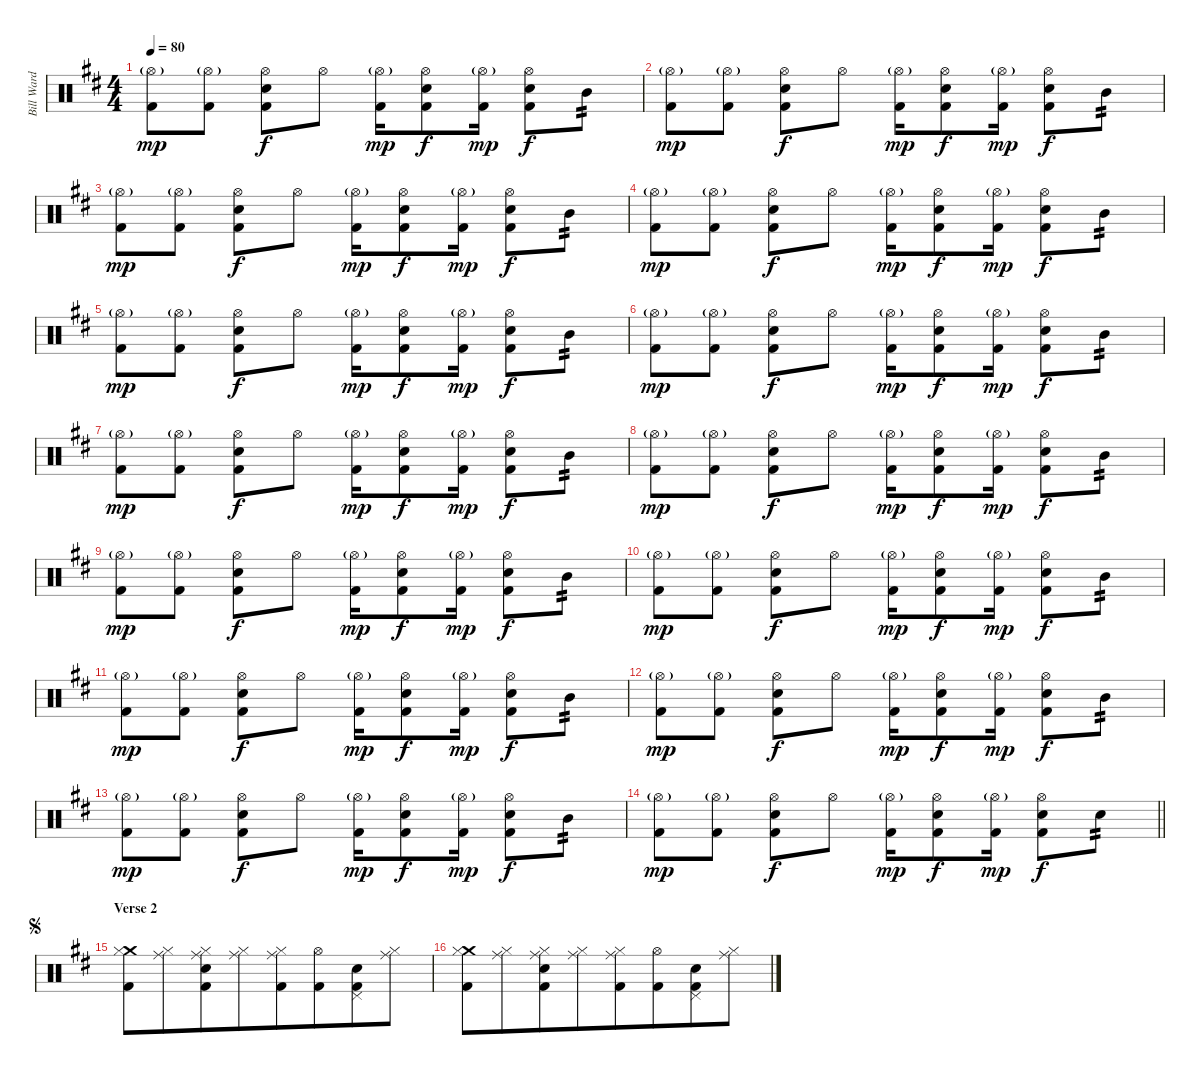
\track ("Bill Ward" "Bill Ward") {instrument percussion}
\staff {score}
\articulation defaults
\ts (4 4)
\tempo 80
\clef neutral
\ks d
("Hi-Hat (open)"{g} "Kick (hit) 2").8{dy mp} ("Hi-Hat (open)"{g} "Kick (hit) 2").8 ("Hi-Hat (open)" "Snare (hit) 2" "Kick (hit) 2").8{dy f} "Hi-Hat (open)".8 ("Hi-Hat (open)"{g} "Kick (hit) 2").16{dy mp} ("Hi-Hat (open)" "Snare (hit) 2" "Kick (hit) 2").8{dy f} ("Hi-Hat (open)"{g} "Kick (hit) 2").16{dy mp} ("Hi-Hat (open)" "Snare (hit) 2" "Kick (hit) 2").8{dy f} "Mid Tom (hit)".8{tp 2} |
("Hi-Hat (open)"{g} "Kick (hit) 2").8{dy mp} ("Hi-Hat (open)"{g} "Kick (hit) 2").8 ("Hi-Hat (open)" "Snare (hit) 2" "Kick (hit) 2").8{dy f} "Hi-Hat (open)".8 ("Hi-Hat (open)"{g} "Kick (hit) 2").16{dy mp} ("Hi-Hat (open)" "Snare (hit) 2" "Kick (hit) 2").8{dy f} ("Hi-Hat (open)"{g} "Kick (hit) 2").16{dy mp} ("Hi-Hat (open)" "Snare (hit) 2" "Kick (hit) 2").8{dy f} "Mid Tom (hit)".8{tp 2} |
("Hi-Hat (open)"{g} "Kick (hit) 2").8{dy mp} ("Hi-Hat (open)"{g} "Kick (hit) 2").8 ("Hi-Hat (open)" "Snare (hit) 2" "Kick (hit) 2").8{dy f} "Hi-Hat (open)".8 ("Hi-Hat (open)"{g} "Kick (hit) 2").16{dy mp} ("Hi-Hat (open)" "Snare (hit) 2" "Kick (hit) 2").8{dy f} ("Hi-Hat (open)"{g} "Kick (hit) 2").16{dy mp} ("Hi-Hat (open)" "Snare (hit) 2" "Kick (hit) 2").8{dy f} "Mid Tom (hit)".8{tp 2} |
("Hi-Hat (open)"{g} "Kick (hit) 2").8{dy mp} ("Hi-Hat (open)"{g} "Kick (hit) 2").8 ("Hi-Hat (open)" "Snare (hit) 2" "Kick (hit) 2").8{dy f} "Hi-Hat (open)".8 ("Hi-Hat (open)"{g} "Kick (hit) 2").16{dy mp} ("Hi-Hat (open)" "Snare (hit) 2" "Kick (hit) 2").8{dy f} ("Hi-Hat (open)"{g} "Kick (hit) 2").16{dy mp} ("Hi-Hat (open)" "Snare (hit) 2" "Kick (hit) 2").8{dy f} "Mid Tom (hit)".8{tp 2} |
("Hi-Hat (open)"{g} "Kick (hit) 2").8{dy mp} ("Hi-Hat (open)"{g} "Kick (hit) 2").8 ("Hi-Hat (open)" "Snare (hit) 2" "Kick (hit) 2").8{dy f} "Hi-Hat (open)".8 ("Hi-Hat (open)"{g} "Kick (hit) 2").16{dy mp} ("Hi-Hat (open)" "Snare (hit) 2" "Kick (hit) 2").8{dy f} ("Hi-Hat (open)"{g} "Kick (hit) 2").16{dy mp} ("Hi-Hat (open)" "Snare (hit) 2" "Kick (hit) 2").8{dy f} "Mid Tom (hit)".8{tp 2} |
("Hi-Hat (open)"{g} "Kick (hit) 2").8{dy mp} ("Hi-Hat (open)"{g} "Kick (hit) 2").8 ("Hi-Hat (open)" "Snare (hit) 2" "Kick (hit) 2").8{dy f} "Hi-Hat (open)".8 ("Hi-Hat (open)"{g} "Kick (hit) 2").16{dy mp} ("Hi-Hat (open)" "Snare (hit) 2" "Kick (hit) 2").8{dy f} ("Hi-Hat (open)"{g} "Kick (hit) 2").16{dy mp} ("Hi-Hat (open)" "Snare (hit) 2" "Kick (hit) 2").8{dy f} "Mid Tom (hit)".8{tp 2} |
("Hi-Hat (open)"{g} "Kick (hit) 2").8{dy mp} ("Hi-Hat (open)"{g} "Kick (hit) 2").8 ("Hi-Hat (open)" "Snare (hit) 2" "Kick (hit) 2").8{dy f} "Hi-Hat (open)".8 ("Hi-Hat (open)"{g} "Kick (hit) 2").16{dy mp} ("Hi-Hat (open)" "Snare (hit) 2" "Kick (hit) 2").8{dy f} ("Hi-Hat (open)"{g} "Kick (hit) 2").16{dy mp} ("Hi-Hat (open)" "Snare (hit) 2" "Kick (hit) 2").8{dy f} "Mid Tom (hit)".8{tp 2} |
("Hi-Hat (open)"{g} "Kick (hit) 2").8{dy mp} ("Hi-Hat (open)"{g} "Kick (hit) 2").8 ("Hi-Hat (open)" "Snare (hit) 2" "Kick (hit) 2").8{dy f} "Hi-Hat (open)".8 ("Hi-Hat (open)"{g} "Kick (hit) 2").16{dy mp} ("Hi-Hat (open)" "Snare (hit) 2" "Kick (hit) 2").8{dy f} ("Hi-Hat (open)"{g} "Kick (hit) 2").16{dy mp} ("Hi-Hat (open)" "Snare (hit) 2" "Kick (hit) 2").8{dy f} "Mid Tom (hit)".8{tp 2} |
("Hi-Hat (open)"{g} "Kick (hit) 2").8{dy mp} ("Hi-Hat (open)"{g} "Kick (hit) 2").8 ("Hi-Hat (open)" "Snare (hit) 2" "Kick (hit) 2").8{dy f} "Hi-Hat (open)".8 ("Hi-Hat (open)"{g} "Kick (hit) 2").16{dy mp} ("Hi-Hat (open)" "Snare (hit) 2" "Kick (hit) 2").8{dy f} ("Hi-Hat (open)"{g} "Kick (hit) 2").16{dy mp} ("Hi-Hat (open)" "Snare (hit) 2" "Kick (hit) 2").8{dy f} "Mid Tom (hit)".8{tp 2} |
("Hi-Hat (open)"{g} "Kick (hit) 2").8{dy mp} ("Hi-Hat (open)"{g} "Kick (hit) 2").8 ("Hi-Hat (open)" "Snare (hit) 2" "Kick (hit) 2").8{dy f} "Hi-Hat (open)".8 ("Hi-Hat (open)"{g} "Kick (hit) 2").16{dy mp} ("Hi-Hat (open)" "Snare (hit) 2" "Kick (hit) 2").8{dy f} ("Hi-Hat (open)"{g} "Kick (hit) 2").16{dy mp} ("Hi-Hat (open)" "Snare (hit) 2" "Kick (hit) 2").8{dy f} "Mid Tom (hit)".8{tp 2} |
("Hi-Hat (open)"{g} "Kick (hit) 2").8{dy mp} ("Hi-Hat (open)"{g} "Kick (hit) 2").8 ("Hi-Hat (open)" "Snare (hit) 2" "Kick (hit) 2").8{dy f} "Hi-Hat (open)".8 ("Hi-Hat (open)"{g} "Kick (hit) 2").16{dy mp} ("Hi-Hat (open)" "Snare (hit) 2" "Kick (hit) 2").8{dy f} ("Hi-Hat (open)"{g} "Kick (hit) 2").16{dy mp} ("Hi-Hat (open)" "Snare (hit) 2" "Kick (hit) 2").8{dy f} "Mid Tom (hit)".8{tp 2} |
("Hi-Hat (open)"{g} "Kick (hit) 2").8{dy mp} ("Hi-Hat (open)"{g} "Kick (hit) 2").8 ("Hi-Hat (open)" "Snare (hit) 2" "Kick (hit) 2").8{dy f} "Hi-Hat (open)".8 ("Hi-Hat (open)"{g} "Kick (hit) 2").16{dy mp} ("Hi-Hat (open)" "Snare (hit) 2" "Kick (hit) 2").8{dy f} ("Hi-Hat (open)"{g} "Kick (hit) 2").16{dy mp} ("Hi-Hat (open)" "Snare (hit) 2" "Kick (hit) 2").8{dy f} "Mid Tom (hit)".8{tp 2} |
("Hi-Hat (open)"{g} "Kick (hit) 2").8{dy mp} ("Hi-Hat (open)"{g} "Kick (hit) 2").8 ("Hi-Hat (open)" "Snare (hit) 2" "Kick (hit) 2").8{dy f} "Hi-Hat (open)".8 ("Hi-Hat (open)"{g} "Kick (hit) 2").16{dy mp} ("Hi-Hat (open)" "Snare (hit) 2" "Kick (hit) 2").8{dy f} ("Hi-Hat (open)"{g} "Kick (hit) 2").16{dy mp} ("Hi-Hat (open)" "Snare (hit) 2" "Kick (hit) 2").8{dy f} "Mid Tom (hit)".8{tp 2} |
\barLineRight lightlight
("Hi-Hat (open)"{g} "Kick (hit) 2").8{dy mp} ("Hi-Hat (open)"{g} "Kick (hit) 2").8 ("Hi-Hat (open)" "Snare (hit) 2" "Kick (hit) 2").8{dy f} "Hi-Hat (open)".8 ("Hi-Hat (open)"{g} "Kick (hit) 2").16{dy mp} ("Hi-Hat (open)" "Snare (hit) 2" "Kick (hit) 2").8{dy f} ("Hi-Hat (open)"{g} "Kick (hit) 2").16{dy mp} ("Hi-Hat (open)" "Snare (hit) 2" "Kick (hit) 2").8{dy f} "Snare (hit) 2".8{tp 2} |
\section ("" "Verse 2")
\jump segno
("Crash medium (hit)" "Hi-Hat (closed)" "Kick (hit) 2").8 ("Ride (middle)" "Hi-Hat (closed)").8{beam merge} ("Ride (middle)" "Hi-Hat (closed)" "Snare (hit) 2" "Kick (hit) 2").8 ("Ride (middle)" "Hi-Hat (closed)").8{beam merge} ("Ride (middle)" "Hi-Hat (closed)" "Kick (hit) 2").8 ("Hi-Hat (open)" "Kick (hit) 2").8{beam merge} ("Pedal Hi-Hat (hit)" "Snare (hit) 2" "Kick (hit) 2").8 ("Ride (middle)" "Hi-Hat (closed)").8 |
("Crash medium (hit)" "Hi-Hat (closed)" "Kick (hit) 2").8 ("Ride (middle)" "Hi-Hat (closed)").8{beam merge} ("Ride (middle)" "Hi-Hat (closed)" "Snare (hit) 2" "Kick (hit) 2").8 ("Ride (middle)" "Hi-Hat (closed)").8{beam merge} ("Ride (middle)" "Hi-Hat (closed)" "Kick (hit) 2").8 ("Hi-Hat (open)" "Kick (hit) 2").8{beam merge} ("Pedal Hi-Hat (hit)" "Snare (hit) 2" "Kick (hit) 2").8 ("Ride (middle)" "Hi-Hat (closed)").8
